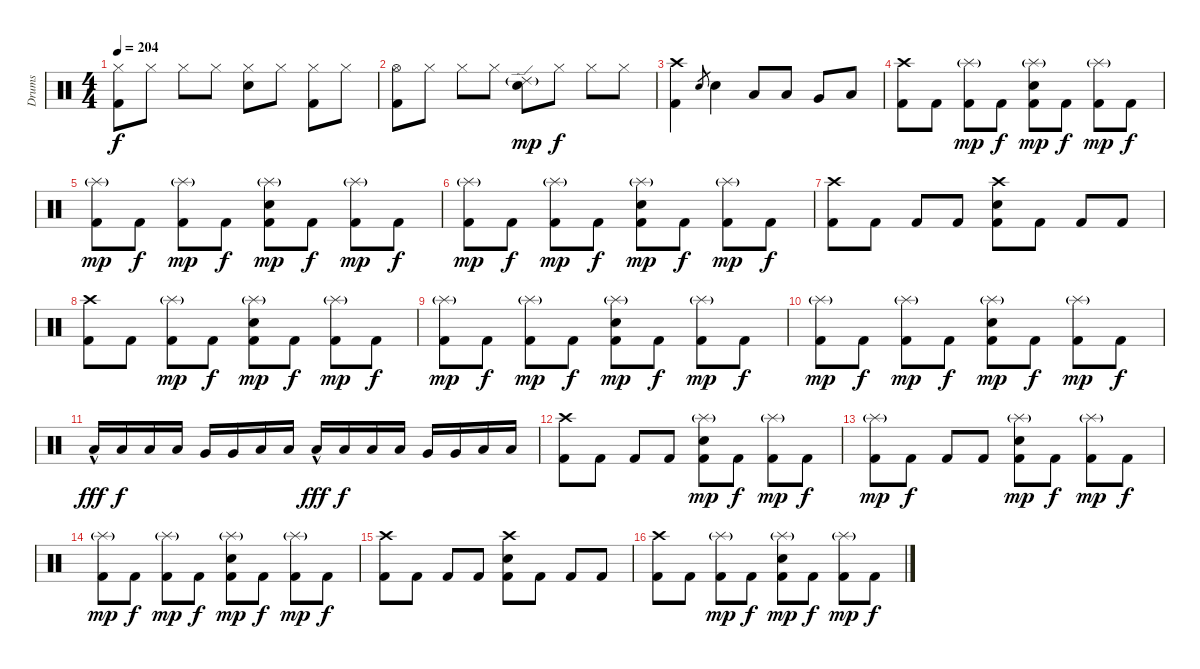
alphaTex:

\track ("Drums" "Drums") {instrument percussion}
\staff {score}
\articulation defaults
\ts (4 4)
\tempo 204
\clef neutral
\ks c
("Hi-Hat (closed)" "Kick (hit) 2").8{dy f} "Hi-Hat (closed)".8 "Hi-Hat (closed)".8 "Hi-Hat (closed)".8 ("Hi-Hat (closed)" "Snare (hit) 2").8 "Hi-Hat (closed)".8 ("Hi-Hat (closed)" "Kick (hit) 2").8 "Hi-Hat (closed)".8 |
("Hi-Hat (open)" "Kick (hit) 2").8 "Hi-Hat (closed)".8 "Hi-Hat (closed)".8 "Hi-Hat (closed)".8 ("Ride (edge) 2"{g} "Snare (hit) 2").8{dy mp} "Hi-Hat (closed)".8{dy f} "Hi-Hat (closed)".8 "Hi-Hat (closed)".8 |
("Crash high (hit)" "Kick (hit) 2").4 "Snare (hit) 2".8{gr} "Snare (hit) 2".4 "Low Tom (hit)".8 "Low Tom (hit)".8 "Very Low Tom (hit)".8 "Low Floor Tom (hit)".8 |
("Crash high (hit)" "Kick (hit) 2").8 "Kick (hit) 2".8 ("Splash (hit)"{g} "Kick (hit) 2").8{dy mp} "Kick (hit) 2".8{dy f} ("Splash (hit)"{g} "Snare (hit) 2" "Kick (hit) 2").8{dy mp} "Kick (hit) 2".8{dy f} ("Splash (hit)"{g} "Kick (hit) 2").8{dy mp} "Kick (hit) 2".8{dy f} |
("Splash (hit)"{g} "Kick (hit) 2").8{dy mp} "Kick (hit) 2".8{dy f} ("Splash (hit)"{g} "Kick (hit) 2").8{dy mp} "Kick (hit) 2".8{dy f} ("Splash (hit)"{g} "Snare (hit) 2" "Kick (hit) 2").8{dy mp} "Kick (hit) 2".8{dy f} ("Splash (hit)"{g} "Kick (hit) 2").8{dy mp} "Kick (hit) 2".8{dy f} |
("Splash (hit)"{g} "Kick (hit) 2").8{dy mp} "Kick (hit) 2".8{dy f} ("Splash (hit)"{g} "Kick (hit) 2").8{dy mp} "Kick (hit) 2".8{dy f} ("Splash (hit)"{g} "Snare (hit) 2" "Kick (hit) 2").8{dy mp} "Kick (hit) 2".8{dy f} ("Splash (hit)"{g} "Kick (hit) 2").8{dy mp} "Kick (hit) 2".8{dy f} |
("Crash high (hit)" "Kick (hit) 2").8 "Kick (hit) 2".8 "Kick (hit) 2".8 "Kick (hit) 2".8 ("Crash high (hit)" "Snare (hit) 2" "Kick (hit) 2").8 "Kick (hit) 2".8 "Kick (hit) 2".8 "Kick (hit) 2".8 |
("Crash high (hit)" "Kick (hit) 2").8 "Kick (hit) 2".8 ("Splash (hit)"{g} "Kick (hit) 2").8{dy mp} "Kick (hit) 2".8{dy f} ("Splash (hit)"{g} "Snare (hit) 2" "Kick (hit) 2").8{dy mp} "Kick (hit) 2".8{dy f} ("Splash (hit)"{g} "Kick (hit) 2").8{dy mp} "Kick (hit) 2".8{dy f} |
("Splash (hit)"{g} "Kick (hit) 2").8{dy mp} "Kick (hit) 2".8{dy f} ("Splash (hit)"{g} "Kick (hit) 2").8{dy mp} "Kick (hit) 2".8{dy f} ("Splash (hit)"{g} "Snare (hit) 2" "Kick (hit) 2").8{dy mp} "Kick (hit) 2".8{dy f} ("Splash (hit)"{g} "Kick (hit) 2").8{dy mp} "Kick (hit) 2".8{dy f} |
("Splash (hit)"{g} "Kick (hit) 2").8{dy mp} "Kick (hit) 2".8{dy f} ("Splash (hit)"{g} "Kick (hit) 2").8{dy mp} "Kick (hit) 2".8{dy f} ("Splash (hit)"{g} "Snare (hit) 2" "Kick (hit) 2").8{dy mp} "Kick (hit) 2".8{dy f} ("Splash (hit)"{g} "Kick (hit) 2").8{dy mp} "Kick (hit) 2".8{dy f} |
"Low Tom (hit)"{hac}.16{dy fff} "Low Tom (hit)".16{dy f} "Low Tom (hit)".16 "Low Tom (hit)".16 "Very Low Tom (hit)".16 "Very Low Tom (hit)".16 "Low Floor Tom (hit)".16 "Low Floor Tom (hit)".16 "Low Tom (hit)"{hac}.16{dy fff} "Low Tom (hit)".16{dy f} "Low Tom (hit)".16 "Low Tom (hit)".16 "Very Low Tom (hit)".16 "Very Low Tom (hit)".16 "Low Floor Tom (hit)".16 "Low Floor Tom (hit)".16 |
("Crash high (hit)" "Kick (hit) 2").8 "Kick (hit) 2".8 "Kick (hit) 2".8 "Kick (hit) 2".8 ("Splash (hit)"{g} "Snare (hit) 2" "Kick (hit) 2").8{dy mp} "Kick (hit) 2".8{dy f} ("Splash (hit)"{g} "Kick (hit) 2").8{dy mp} "Kick (hit) 2".8{dy f} |
("Splash (hit)"{g} "Kick (hit) 2").8{dy mp} "Kick (hit) 2".8{dy f} "Kick (hit) 2".8 "Kick (hit) 2".8 ("Splash (hit)"{g} "Snare (hit) 2" "Kick (hit) 2").8{dy mp} "Kick (hit) 2".8{dy f} ("Splash (hit)"{g} "Kick (hit) 2").8{dy mp} "Kick (hit) 2".8{dy f} |
("Splash (hit)"{g} "Kick (hit) 2").8{dy mp} "Kick (hit) 2".8{dy f} ("Splash (hit)"{g} "Kick (hit) 2").8{dy mp} "Kick (hit) 2".8{dy f} ("Splash (hit)"{g} "Snare (hit) 2" "Kick (hit) 2").8{dy mp} "Kick (hit) 2".8{dy f} ("Splash (hit)"{g} "Kick (hit) 2").8{dy mp} "Kick (hit) 2".8{dy f} |
("Crash high (hit)" "Kick (hit) 2").8 "Kick (hit) 2".8 "Kick (hit) 2".8 "Kick (hit) 2".8 ("Crash high (hit)" "Snare (hit) 2" "Kick (hit) 2").8 "Kick (hit) 2".8 "Kick (hit) 2".8 "Kick (hit) 2".8 |
("Crash high (hit)" "Kick (hit) 2").8 "Kick (hit) 2".8 ("Splash (hit)"{g} "Kick (hit) 2").8{dy mp} "Kick (hit) 2".8{dy f} ("Splash (hit)"{g} "Snare (hit) 2" "Kick (hit) 2").8{dy mp} "Kick (hit) 2".8{dy f} ("Splash (hit)"{g} "Kick (hit) 2").8{dy mp} "Kick (hit) 2".8{dy f}
